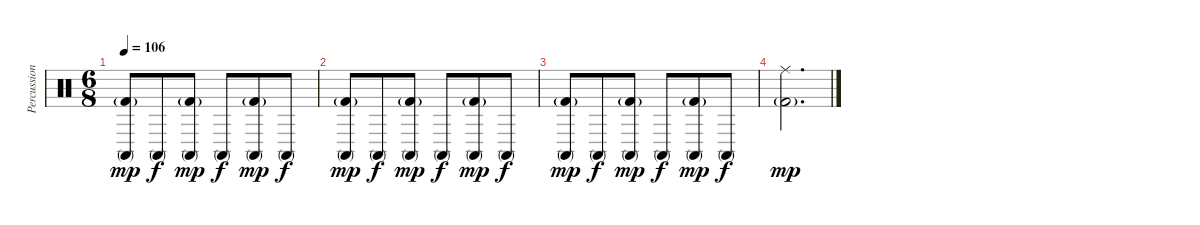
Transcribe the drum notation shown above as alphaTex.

\track ("Percussion" "Percussion") {instrument percussion}
\staff {score}
\articulation defaults
\ts (6 8)
\tempo 106
\clef neutral
\ks c
("Conga high (mute)" "Kick (hit) 2"{g}).8{dy mp} "Conga high (mute)".8{dy f} ("Conga high (mute)" "Kick (hit) 2"{g}).8{dy mp} "Conga high (mute)".8{dy f} ("Conga high (mute)" "Kick (hit) 2"{g}).8{dy mp} "Conga high (mute)".8{dy f} |
("Conga high (mute)" "Kick (hit) 2"{g}).8{dy mp} "Conga high (mute)".8{dy f} ("Conga high (mute)" "Kick (hit) 2"{g}).8{dy mp} "Conga high (mute)".8{dy f} ("Conga high (mute)" "Kick (hit) 2"{g}).8{dy mp} "Conga high (mute)".8{dy f} |
("Conga high (mute)" "Kick (hit) 2"{g}).8{dy mp} "Conga high (mute)".8{dy f} ("Conga high (mute)" "Kick (hit) 2"{g}).8{dy mp} "Conga high (mute)".8{dy f} ("Conga high (mute)" "Kick (hit) 2"{g}).8{dy mp} "Conga high (mute)".8{dy f} |
("Ride (middle)" "Kick (hit) 2"{g}).2{d dy mp}
